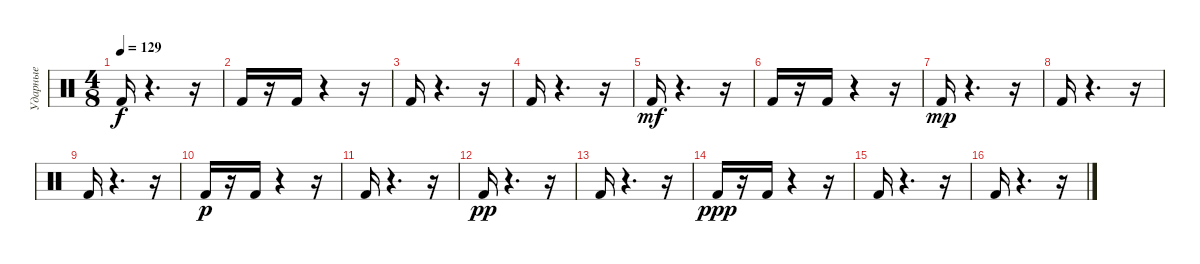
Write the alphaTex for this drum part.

\track ("Ударные" "Ударные") {instrument percussion}
\staff {score}
\articulation defaults
\ts (4 8)
\tempo 129
\clef neutral
\ks c "Kick (hit) 2".16{dy f}
r.4{d} r.16 |
"Kick (hit) 2".16 r.16 "Kick (hit) 2".16 r.4 r.16 |
"Kick (hit) 2".16 r.4{d} r.16 |
"Kick (hit) 2".16 r.4{d} r.16 |
"Kick (hit) 2".16{dy mf} r.4{d} r.16 |
"Kick (hit) 2".16 r.16 "Kick (hit) 2".16 r.4 r.16 |
"Kick (hit) 2".16{dy mp} r.4{d} r.16 |
"Kick (hit) 2".16 r.4{d} r.16 |
"Kick (hit) 2".16 r.4{d} r.16 |
"Kick (hit) 2".16{dy p} r.16 "Kick (hit) 2".16 r.4 r.16 |
"Kick (hit) 2".16 r.4{d} r.16 |
"Kick (hit) 2".16{dy pp} r.4{d} r.16 |
"Kick (hit) 2".16 r.4{d} r.16 |
"Kick (hit) 2".16{dy ppp} r.16 "Kick (hit) 2".16 r.4 r.16 |
"Kick (hit) 2".16 r.4{d} r.16 |
"Kick (hit) 2".16 r.4{d} r.16
